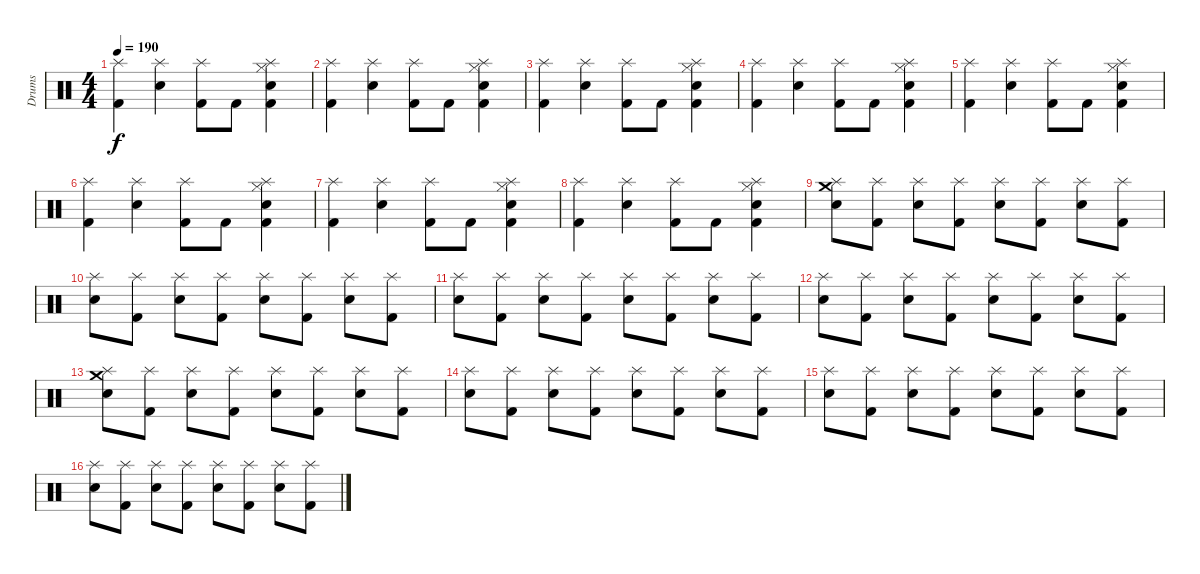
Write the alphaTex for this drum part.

\track ("Drums" "Drums") {instrument percussion}
\staff {score}
\articulation defaults
\ts (4 4)
\tempo 190
\clef neutral
\ks c
("Splash (hit)" "Kick (hit) 2").4{dy f} ("Splash (hit)" "Electric Snare (hit)").4 ("Splash (hit)" "Kick (hit) 2").8 "Kick (hit) 2".8 ("Splash (hit)" "Hi-Hat (closed)" "Electric Snare (hit)" "Kick (hit) 2").4 |
("Splash (hit)" "Kick (hit) 2").4 ("Splash (hit)" "Electric Snare (hit)").4 ("Splash (hit)" "Kick (hit) 2").8 "Kick (hit) 2".8 ("Splash (hit)" "Hi-Hat (closed)" "Electric Snare (hit)" "Kick (hit) 2").4 |
("Splash (hit)" "Kick (hit) 2").4 ("Splash (hit)" "Electric Snare (hit)").4 ("Splash (hit)" "Kick (hit) 2").8 "Kick (hit) 2".8 ("Splash (hit)" "Hi-Hat (closed)" "Electric Snare (hit)" "Kick (hit) 2").4 |
("Splash (hit)" "Kick (hit) 2").4 ("Splash (hit)" "Electric Snare (hit)").4 ("Splash (hit)" "Kick (hit) 2").8 "Kick (hit) 2".8 ("Splash (hit)" "Hi-Hat (closed)" "Electric Snare (hit)" "Kick (hit) 2").4 |
("Splash (hit)" "Kick (hit) 2").4 ("Splash (hit)" "Electric Snare (hit)").4 ("Splash (hit)" "Kick (hit) 2").8 "Kick (hit) 2".8 ("Splash (hit)" "Hi-Hat (closed)" "Electric Snare (hit)" "Kick (hit) 2").4 |
("Splash (hit)" "Kick (hit) 2").4 ("Splash (hit)" "Electric Snare (hit)").4 ("Splash (hit)" "Kick (hit) 2").8 "Kick (hit) 2".8 ("Splash (hit)" "Hi-Hat (closed)" "Electric Snare (hit)" "Kick (hit) 2").4 |
("Splash (hit)" "Kick (hit) 2").4 ("Splash (hit)" "Electric Snare (hit)").4 ("Splash (hit)" "Kick (hit) 2").8 "Kick (hit) 2".8 ("Splash (hit)" "Hi-Hat (closed)" "Electric Snare (hit)" "Kick (hit) 2").4 |
("Splash (hit)" "Kick (hit) 2").4 ("Splash (hit)" "Electric Snare (hit)").4 ("Splash (hit)" "Kick (hit) 2").8 "Kick (hit) 2".8 ("Splash (hit)" "Hi-Hat (closed)" "Electric Snare (hit)" "Kick (hit) 2").4 |
("Crash medium (hit)" "Splash (hit)" "Electric Snare (hit)").8 ("Splash (hit)" "Kick (hit) 2").8 ("Splash (hit)" "Electric Snare (hit)").8 ("Splash (hit)" "Kick (hit) 2").8 ("Splash (hit)" "Electric Snare (hit)").8 ("Splash (hit)" "Kick (hit) 2").8 ("Splash (hit)" "Electric Snare (hit)").8 ("Splash (hit)" "Kick (hit) 2").8 |
("Splash (hit)" "Electric Snare (hit)").8 ("Splash (hit)" "Kick (hit) 2").8 ("Splash (hit)" "Electric Snare (hit)").8 ("Splash (hit)" "Kick (hit) 2").8 ("Splash (hit)" "Electric Snare (hit)").8 ("Splash (hit)" "Kick (hit) 2").8 ("Splash (hit)" "Electric Snare (hit)").8 ("Splash (hit)" "Kick (hit) 2").8 |
("Splash (hit)" "Electric Snare (hit)").8 ("Splash (hit)" "Kick (hit) 2").8 ("Splash (hit)" "Electric Snare (hit)").8 ("Splash (hit)" "Kick (hit) 2").8 ("Splash (hit)" "Electric Snare (hit)").8 ("Splash (hit)" "Kick (hit) 2").8 ("Splash (hit)" "Electric Snare (hit)").8 ("Splash (hit)" "Kick (hit) 2").8 |
("Splash (hit)" "Electric Snare (hit)").8 ("Splash (hit)" "Kick (hit) 2").8 ("Splash (hit)" "Electric Snare (hit)").8 ("Splash (hit)" "Kick (hit) 2").8 ("Splash (hit)" "Electric Snare (hit)").8 ("Splash (hit)" "Kick (hit) 2").8 ("Splash (hit)" "Electric Snare (hit)").8 ("Splash (hit)" "Kick (hit) 2").8 |
("Crash medium (hit)" "Splash (hit)" "Electric Snare (hit)").8 ("Splash (hit)" "Kick (hit) 2").8 ("Splash (hit)" "Electric Snare (hit)").8 ("Splash (hit)" "Kick (hit) 2").8 ("Splash (hit)" "Electric Snare (hit)").8 ("Splash (hit)" "Kick (hit) 2").8 ("Splash (hit)" "Electric Snare (hit)").8 ("Splash (hit)" "Kick (hit) 2").8 |
("Splash (hit)" "Electric Snare (hit)").8 ("Splash (hit)" "Kick (hit) 2").8 ("Splash (hit)" "Electric Snare (hit)").8 ("Splash (hit)" "Kick (hit) 2").8 ("Splash (hit)" "Electric Snare (hit)").8 ("Splash (hit)" "Kick (hit) 2").8 ("Splash (hit)" "Electric Snare (hit)").8 ("Splash (hit)" "Kick (hit) 2").8 |
("Splash (hit)" "Electric Snare (hit)").8 ("Splash (hit)" "Kick (hit) 2").8 ("Splash (hit)" "Electric Snare (hit)").8 ("Splash (hit)" "Kick (hit) 2").8 ("Splash (hit)" "Electric Snare (hit)").8 ("Splash (hit)" "Kick (hit) 2").8 ("Splash (hit)" "Electric Snare (hit)").8 ("Splash (hit)" "Kick (hit) 2").8 |
("Splash (hit)" "Electric Snare (hit)").8 ("Splash (hit)" "Kick (hit) 2").8 ("Splash (hit)" "Electric Snare (hit)").8 ("Splash (hit)" "Kick (hit) 2").8 ("Splash (hit)" "Electric Snare (hit)").8 ("Splash (hit)" "Kick (hit) 2").8 ("Splash (hit)" "Electric Snare (hit)").8 ("Splash (hit)" "Kick (hit) 2").8
